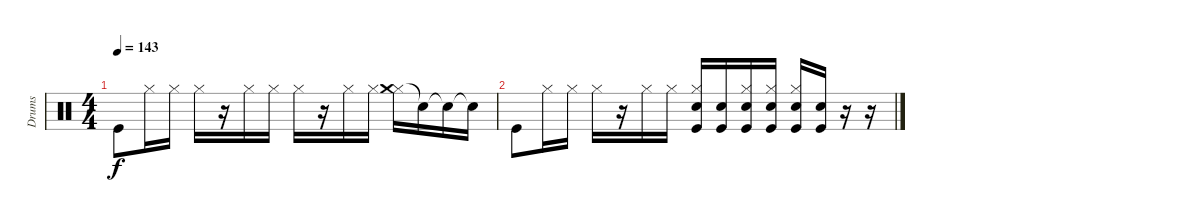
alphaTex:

\track ("Drums" "Drums") {instrument percussion}
\staff {score}
\articulation defaults
\ts (4 4)
\tempo 143
\clef neutral
\ks c "Kick (hit)".8{dy f} "Hi-Hat (closed)".16 "Hi-Hat (closed)".16 "Hi-Hat (closed)".16
r.16 "Hi-Hat (closed)".16 "Hi-Hat (closed)".16 "Hi-Hat (closed)".16 r.16 "Hi-Hat (closed)".16 "Hi-Hat (closed)".16 ("Hi-Hat (closed)" "Crash medium (hit)").16 "Snare (hit)"{t}.16 "Snare (hit)"{t}.16 "Snare (hit)"{t}.16 |
"Kick (hit)".8 "Hi-Hat (closed)".16 "Hi-Hat (closed)".16 "Hi-Hat (closed)".16 r.16 "Hi-Hat (closed)".16 "Hi-Hat (closed)".16 ("Hi-Hat (closed)" "Snare (hit) 2" "Kick (hit)").16 ("Snare (hit) 2" "Kick (hit)").16 ("Hi-Hat (closed)" "Snare (hit) 2" "Kick (hit)").16 ("Hi-Hat (closed)" "Snare (hit) 2" "Kick (hit)").16 ("Hi-Hat (closed)" "Snare (hit) 2" "Kick (hit)").16 ("Snare (hit) 2" "Kick (hit)").16 r.16 r.16
